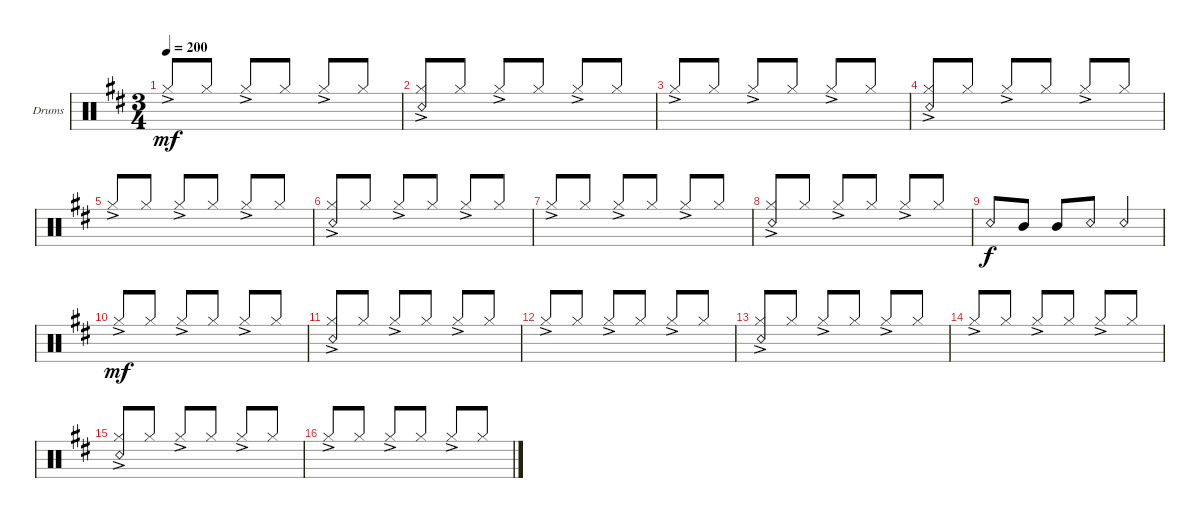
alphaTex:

\defaultSystemsLayout 4
\bracketExtendMode groupsimilarinstruments
\firstSystemTrackNameOrientation horizontal
\otherSystemsTrackNameOrientation horizontal
\track ("Drumkit" "Drums") {instrument percussion}
\staff {score}
\articulation defaults
\ts (3 4)
\tempo 200
\clef neutral
\ks d "Hi-Hat (closed)"{ac}.8{dy mf beam invert} "Hi-Hat (closed)".8 "Hi-Hat (closed)"{ac}.8{beam invert} "Hi-Hat (closed)".8 "Hi-Hat (closed)"{ac}.8{beam invert} "Hi-Hat (closed)".8
|
("Hi-Hat (closed)"{ac} "Snare (rim shot)").8{beam invert} "Hi-Hat (closed)".8 "Hi-Hat (closed)"{ac}.8{beam invert} "Hi-Hat (closed)".8 "Hi-Hat (closed)"{ac}.8{beam invert} "Hi-Hat (closed)".8 |
"Hi-Hat (closed)"{ac}.8{beam invert} "Hi-Hat (closed)".8 "Hi-Hat (closed)"{ac}.8{beam invert} "Hi-Hat (closed)".8 "Hi-Hat (closed)"{ac}.8{beam invert} "Hi-Hat (closed)".8 |
("Hi-Hat (closed)"{ac} "Snare (rim shot)").8{beam invert} "Hi-Hat (closed)".8 "Hi-Hat (closed)"{ac}.8{beam invert} "Hi-Hat (closed)".8 "Hi-Hat (closed)"{ac}.8{beam invert} "Hi-Hat (closed)".8 |
"Hi-Hat (closed)"{ac}.8{beam invert} "Hi-Hat (closed)".8 "Hi-Hat (closed)"{ac}.8{beam invert} "Hi-Hat (closed)".8 "Hi-Hat (closed)"{ac}.8{beam invert} "Hi-Hat (closed)".8 |
("Hi-Hat (closed)"{ac} "Snare (rim shot)").8{beam invert} "Hi-Hat (closed)".8 "Hi-Hat (closed)"{ac}.8{beam invert} "Hi-Hat (closed)".8 "Hi-Hat (closed)"{ac}.8{beam invert} "Hi-Hat (closed)".8 |
"Hi-Hat (closed)"{ac}.8{beam invert} "Hi-Hat (closed)".8 "Hi-Hat (closed)"{ac}.8{beam invert} "Hi-Hat (closed)".8 "Hi-Hat (closed)"{ac}.8{beam invert} "Hi-Hat (closed)".8 |
("Hi-Hat (closed)"{ac} "Snare (rim shot)").8{beam invert} "Hi-Hat (closed)".8 "Hi-Hat (closed)"{ac}.8{beam invert} "Hi-Hat (closed)".8 "Hi-Hat (closed)"{ac}.8{beam invert} "Hi-Hat (closed)".8 |
"Snare (rim shot)".8{dy f beam invert} "Mid Tom (hit)".8 "Mid Tom (hit)".8{beam invert} "Snare (rim shot)".8 "Snare (rim shot)".4{beam invert} |
"Hi-Hat (closed)"{ac}.8{dy mf beam invert} "Hi-Hat (closed)".8 "Hi-Hat (closed)"{ac}.8{beam invert} "Hi-Hat (closed)".8 "Hi-Hat (closed)"{ac}.8{beam invert} "Hi-Hat (closed)".8 |
("Hi-Hat (closed)"{ac} "Snare (rim shot)").8{beam invert} "Hi-Hat (closed)".8 "Hi-Hat (closed)"{ac}.8{beam invert} "Hi-Hat (closed)".8 "Hi-Hat (closed)"{ac}.8{beam invert} "Hi-Hat (closed)".8 |
"Hi-Hat (closed)"{ac}.8{beam invert} "Hi-Hat (closed)".8 "Hi-Hat (closed)"{ac}.8{beam invert} "Hi-Hat (closed)".8 "Hi-Hat (closed)"{ac}.8{beam invert} "Hi-Hat (closed)".8 |
("Hi-Hat (closed)"{ac} "Snare (rim shot)").8{beam invert} "Hi-Hat (closed)".8 "Hi-Hat (closed)"{ac}.8{beam invert} "Hi-Hat (closed)".8 "Hi-Hat (closed)"{ac}.8{beam invert} "Hi-Hat (closed)".8 |
"Hi-Hat (closed)"{ac}.8{beam invert} "Hi-Hat (closed)".8 "Hi-Hat (closed)"{ac}.8{beam invert} "Hi-Hat (closed)".8 "Hi-Hat (closed)"{ac}.8{beam invert} "Hi-Hat (closed)".8 |
("Hi-Hat (closed)"{ac} "Snare (rim shot)").8{beam invert} "Hi-Hat (closed)".8 "Hi-Hat (closed)"{ac}.8{beam invert} "Hi-Hat (closed)".8 "Hi-Hat (closed)"{ac}.8{beam invert} "Hi-Hat (closed)".8 |
"Hi-Hat (closed)"{ac}.8{beam invert} "Hi-Hat (closed)".8 "Hi-Hat (closed)"{ac}.8{beam invert} "Hi-Hat (closed)".8 "Hi-Hat (closed)"{ac}.8{beam invert} "Hi-Hat (closed)".8
